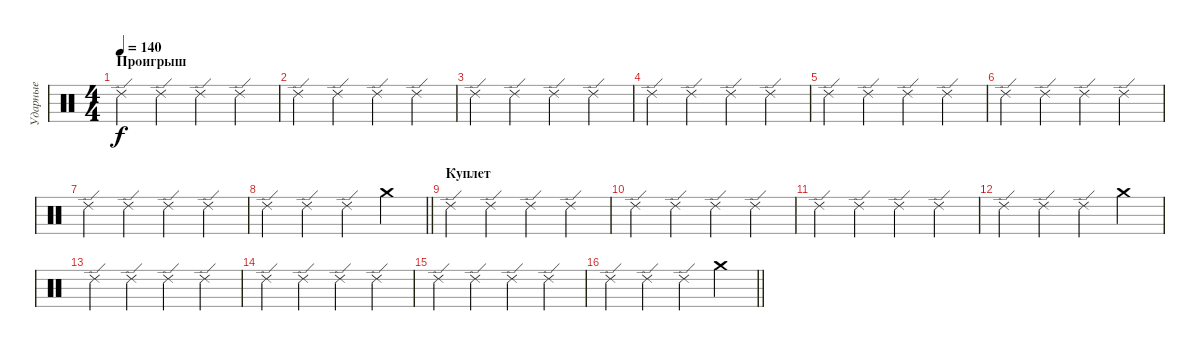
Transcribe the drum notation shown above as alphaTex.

\track ("Ударные" "Ударные") {instrument percussion}
\staff {score}
\articulation defaults
\ts (4 4)
\section ("" "Проигрыш")
\tempo 140
\clef neutral
\ks c "Ride (edge) 2".4{dy f} "Ride (edge) 2".4 "Ride (edge) 2".4 "Ride (edge) 2".4
|
"Ride (edge) 2".4 "Ride (edge) 2".4 "Ride (edge) 2".4 "Ride (edge) 2".4 |
"Ride (edge) 2".4 "Ride (edge) 2".4 "Ride (edge) 2".4 "Ride (edge) 2".4 |
"Ride (edge) 2".4 "Ride (edge) 2".4 "Ride (edge) 2".4 "Ride (edge) 2".4 |
"Ride (edge) 2".4 "Ride (edge) 2".4 "Ride (edge) 2".4 "Ride (edge) 2".4 |
"Ride (edge) 2".4 "Ride (edge) 2".4 "Ride (edge) 2".4 "Ride (edge) 2".4 |
"Ride (edge) 2".4 "Ride (edge) 2".4 "Ride (edge) 2".4 "Ride (edge) 2".4 |
\barLineRight lightlight "Ride (edge) 2".4 "Ride (edge) 2".4 "Ride (edge) 2".4 "Crash medium (hit)".4
|
\section ("" "Куплет")
"Ride (edge) 2".4 "Ride (edge) 2".4 "Ride (edge) 2".4 "Ride (edge) 2".4 |
"Ride (edge) 2".4 "Ride (edge) 2".4 "Ride (edge) 2".4 "Ride (edge) 2".4 |
"Ride (edge) 2".4 "Ride (edge) 2".4 "Ride (edge) 2".4 "Ride (edge) 2".4 |
"Ride (edge) 2".4 "Ride (edge) 2".4 "Ride (edge) 2".4 "Crash medium (hit)".4 |
"Ride (edge) 2".4 "Ride (edge) 2".4 "Ride (edge) 2".4 "Ride (edge) 2".4 |
"Ride (edge) 2".4 "Ride (edge) 2".4 "Ride (edge) 2".4 "Ride (edge) 2".4 |
"Ride (edge) 2".4 "Ride (edge) 2".4 "Ride (edge) 2".4 "Ride (edge) 2".4 |
\barLineRight lightlight "Ride (edge) 2".4 "Ride (edge) 2".4 "Ride (edge) 2".4 "Crash medium (hit)".4
